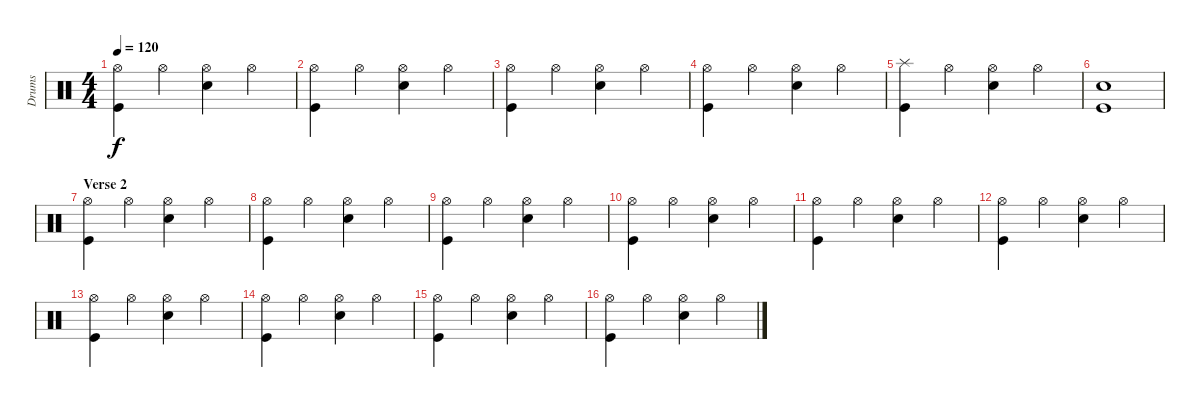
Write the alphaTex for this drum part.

\track ("Drums" "Drums") {instrument percussion}
\staff {score}
\articulation defaults
\ts (4 4)
\tempo 120
\clef neutral
\ks c
("Hi-Hat (open)" "Kick (hit)").4{dy f} "Hi-Hat (open)".4 ("Hi-Hat (open)" "Snare (hit) 2").4 "Hi-Hat (open)".4 |
("Hi-Hat (open)" "Kick (hit)").4 "Hi-Hat (open)".4 ("Hi-Hat (open)" "Snare (hit) 2").4 "Hi-Hat (open)".4 |
("Hi-Hat (open)" "Kick (hit)").4 "Hi-Hat (open)".4 ("Hi-Hat (open)" "Snare (hit) 2").4 "Hi-Hat (open)".4 |
("Hi-Hat (open)" "Kick (hit)").4 "Hi-Hat (open)".4 ("Hi-Hat (open)" "Snare (hit) 2").4 "Hi-Hat (open)".4 |
("Splash (hit)" "Kick (hit)").4 "Hi-Hat (open)".4 ("Hi-Hat (open)" "Snare (hit) 2").4 "Hi-Hat (open)".4 |
("Snare (hit) 2" "Kick (hit)").1 |
\section ("" "Verse 2")
("Hi-Hat (open)" "Kick (hit)").4 "Hi-Hat (open)".4 ("Hi-Hat (open)" "Snare (hit) 2").4 "Hi-Hat (open)".4 |
("Hi-Hat (open)" "Kick (hit)").4 "Hi-Hat (open)".4 ("Hi-Hat (open)" "Snare (hit) 2").4 "Hi-Hat (open)".4 |
("Hi-Hat (open)" "Kick (hit)").4 "Hi-Hat (open)".4 ("Hi-Hat (open)" "Snare (hit) 2").4 "Hi-Hat (open)".4 |
("Hi-Hat (open)" "Kick (hit)").4 "Hi-Hat (open)".4 ("Hi-Hat (open)" "Snare (hit) 2").4 "Hi-Hat (open)".4 |
("Hi-Hat (open)" "Kick (hit)").4 "Hi-Hat (open)".4 ("Hi-Hat (open)" "Snare (hit) 2").4 "Hi-Hat (open)".4 |
("Hi-Hat (open)" "Kick (hit)").4 "Hi-Hat (open)".4 ("Hi-Hat (open)" "Snare (hit) 2").4 "Hi-Hat (open)".4 |
("Hi-Hat (open)" "Kick (hit)").4 "Hi-Hat (open)".4 ("Hi-Hat (open)" "Snare (hit) 2").4 "Hi-Hat (open)".4 |
("Hi-Hat (open)" "Kick (hit)").4 "Hi-Hat (open)".4 ("Hi-Hat (open)" "Snare (hit) 2").4 "Hi-Hat (open)".4 |
("Hi-Hat (open)" "Kick (hit)").4 "Hi-Hat (open)".4 ("Hi-Hat (open)" "Snare (hit) 2").4 "Hi-Hat (open)".4 |
("Hi-Hat (open)" "Kick (hit)").4 "Hi-Hat (open)".4 ("Hi-Hat (open)" "Snare (hit) 2").4 "Hi-Hat (open)".4
